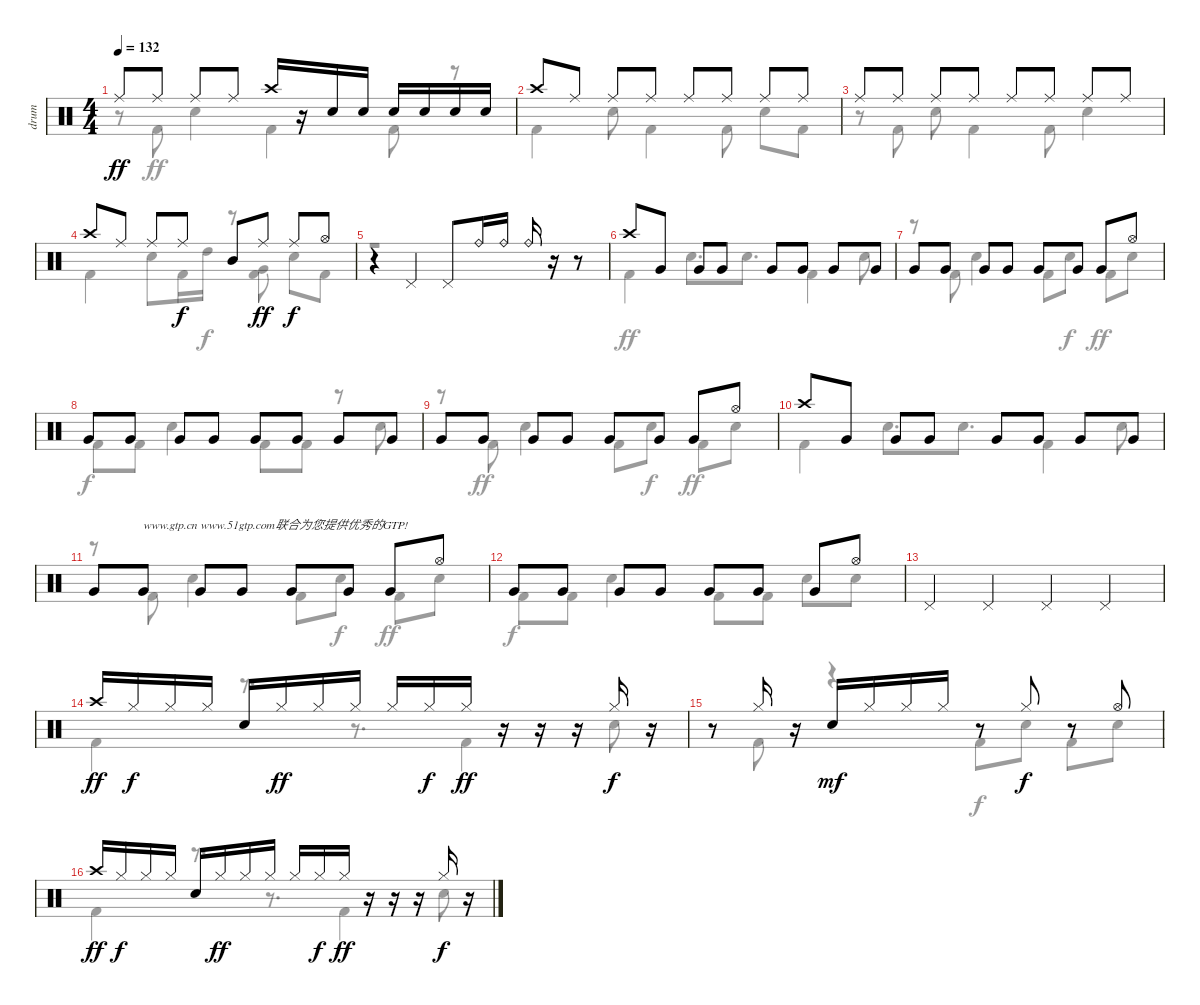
\track ("drum" "drum") {instrument percussion}
\staff {score}
\articulation defaults
\voice
\ts (4 4)
\tempo 132
\clef neutral
\ks c "Ride (middle)".8{dy ff} "Ride (middle)".8 "Ride (middle)".8 "Ride (middle)".8 "Crash high (hit)".16
r.16 "Snare (hit) 2".16 "Snare (hit) 2".16 "Snare (hit) 2".16 "Snare (hit) 2".16 "Snare (hit) 2".16 "Snare (hit) 2".16 |
"Crash high (hit)".8 "Ride (middle)".8 "Ride (middle)".8 "Ride (middle)".8 "Ride (middle)".8 "Ride (middle)".8 "Ride (middle)".8 "Ride (middle)".8 |
"Ride (middle)".8 "Ride (middle)".8 "Ride (middle)".8 "Ride (middle)".8 "Ride (middle)".8 "Ride (middle)".8 "Ride (middle)".8 "Ride (middle)".8 |
"Crash high (hit)".8 "Ride (middle)".8 "Ride (middle)".8 "Ride (middle)".8{dy f} "Mid Tom (hit)".8 "Ride (middle)".8{dy ff} "Ride (middle)".8{dy f} "Hi-Hat (open)".8 |
r.4 "Pedal Hi-Hat (hit)".4 "Pedal Hi-Hat (hit)".8 "Ride (bell)".16 "Ride (bell)".16 "Ride (bell)".16 r.16 r.8 |
"Crash high (hit)".8 "Very Low Tom (hit)".8 "Very Low Tom (hit)".8 "Very Low Tom (hit)".8 "Very Low Tom (hit)".8 "Very Low Tom (hit)".8 "Very Low Tom (hit)".8 "Very Low Tom (hit)".8 |
"Very Low Tom (hit)".8 "Very Low Tom (hit)".8 "Very Low Tom (hit)".8 "Very Low Tom (hit)".8 "Very Low Tom (hit)".8 "Very Low Tom (hit)".8 "Very Low Tom (hit)".8 "Hi-Hat (open)".8 |
"Very Low Tom (hit)".8 "Very Low Tom (hit)".8 "Very Low Tom (hit)".8 "Very Low Tom (hit)".8 "Very Low Tom (hit)".8 "Very Low Tom (hit)".8 "Very Low Tom (hit)".8 "Very Low Tom (hit)".8 |
"Very Low Tom (hit)".8 "Very Low Tom (hit)".8 "Very Low Tom (hit)".8 "Very Low Tom (hit)".8 "Very Low Tom (hit)".8 "Very Low Tom (hit)".8 "Very Low Tom (hit)".8 "Hi-Hat (open)".8 |
"Crash high (hit)".8 "Very Low Tom (hit)".8 "Very Low Tom (hit)".8 "Very Low Tom (hit)".8 "Very Low Tom (hit)".8 "Very Low Tom (hit)".8 "Very Low Tom (hit)".8 "Very Low Tom (hit)".8 |
"Very Low Tom (hit)".8 "Very Low Tom (hit)".8{txt "www.gtp.cn www.51gtp.com联合为您提供优秀的GTP!"} "Very Low Tom (hit)".8 "Very Low Tom (hit)".8 "Very Low Tom (hit)".8 "Very Low Tom (hit)".8 "Very Low Tom (hit)".8 "Hi-Hat (open)".8 |
"Very Low Tom (hit)".8 "Very Low Tom (hit)".8 "Very Low Tom (hit)".8 "Very Low Tom (hit)".8 "Very Low Tom (hit)".8 "Very Low Tom (hit)".8 "Very Low Tom (hit)".8 "Hi-Hat (open)".8 |
"Pedal Hi-Hat (hit)".4 "Pedal Hi-Hat (hit)".4 "Pedal Hi-Hat (hit)".4 "Pedal Hi-Hat (hit)".4 |
"Crash high (hit)".16{dy ff} "Hi-Hat (closed)".16{dy f} "Hi-Hat (closed)".16 "Hi-Hat (closed)".16 "Snare (hit) 2".16 "Hi-Hat (closed)".16{dy ff} "Hi-Hat (closed)".16 "Hi-Hat (closed)".16 "Hi-Hat (closed)".16 "Hi-Hat (closed)".16{dy f} "Hi-Hat (closed)".16{dy ff} r.16 r.16 r.16 "Hi-Hat (closed)".16{dy f} r.16 |
r.8 "Hi-Hat (closed)".16 r.16 "Snare (hit) 2".16{dy mf} "Hi-Hat (closed)".16 "Hi-Hat (closed)".16 "Hi-Hat (closed)".16 r.8 "Hi-Hat (closed)".8{dy f} r.8 "Hi-Hat (open)".8 |
"Crash high (hit)".16{dy ff} "Hi-Hat (closed)".16{dy f} "Hi-Hat (closed)".16 "Hi-Hat (closed)".16 "Snare (hit) 2".16 "Hi-Hat (closed)".16{dy ff} "Hi-Hat (closed)".16 "Hi-Hat (closed)".16 "Hi-Hat (closed)".16 "Hi-Hat (closed)".16{dy f} "Hi-Hat (closed)".16{dy ff} r.16 r.16 r.16 "Hi-Hat (closed)".16{dy f} r.16
\voice
\clef neutral
\ottava regular
\simile none
\ks c
r.8{dy ff} "Kick (hit) 2".8 "Snare (hit) 2".4 "Kick (hit) 2".4 "Kick (hit) 2".8 r.8 |
"Kick (hit) 2".4 "Snare (hit) 2".8 "Kick (hit) 2".4 "Kick (hit) 2".8 "Snare (hit) 2".8 "Kick (hit) 2".8 |
r.8 "Kick (hit) 2".8 "Snare (hit) 2".8 "Kick (hit) 2".4 "Kick (hit) 2".8 "Snare (hit) 2".4 |
"Kick (hit) 2".4 "Snare (hit) 2".8 "Kick (hit) 2".16 "High Tom (hit)".16{dy f} r.8 ("Very Low Tom (hit)" "Kick (hit) 2").8 "Snare (hit) 2".8 "Kick (hit) 2".8 |
r.1 |
"Kick (hit) 2".4{dy ff} "Snare (hit) 2".8{d} "Snare (hit) 2".8{d} "Kick (hit) 2".4 "Snare (hit) 2".8 |
r.8 "Kick (hit) 2".8 "Snare (hit) 2".4 "Kick (hit) 2".8 "Snare (hit) 2".8{dy f} "Kick (hit) 2".8{dy ff} "Snare (hit) 2".8 |
"Kick (hit) 2".8{dy f} "Kick (hit) 2".8 "Snare (hit) 2".4 "Kick (hit) 2".8 "Kick (hit) 2".8 r.8 "Snare (hit) 2".8 |
r.8 "Kick (hit) 2".8{dy ff} "Snare (hit) 2".4 "Kick (hit) 2".8 "Snare (hit) 2".8{dy f} "Kick (hit) 2".8{dy ff} "Snare (hit) 2".8 |
"Kick (hit) 2".4 "Snare (hit) 2".8{d} "Snare (hit) 2".8{d} "Kick (hit) 2".4 "Snare (hit) 2".8 |
r.8 "Kick (hit) 2".8 "Snare (hit) 2".4 "Kick (hit) 2".8 "Snare (hit) 2".8{dy f} "Kick (hit) 2".8{dy ff} "Snare (hit) 2".8 |
"Kick (hit) 2".8{dy f} "Kick (hit) 2".8 "Snare (hit) 2".4 "Kick (hit) 2".8 "Kick (hit) 2".8 "Snare (hit) 2".8 "Snare (hit) 2".8 |
|
"Kick (hit) 2".4{dy ff} r.8{d} r.8{d} "Kick (hit) 2".4 "Snare (hit) 2".8 |
r.8 "Kick (hit) 2".8 r.4 "Kick (hit) 2".8{dy f} "Snare (hit) 2".8 "Kick (hit) 2".8 "Snare (hit) 2".8 |
"Kick (hit) 2".4{dy ff} r.8{d} r.8{d} "Kick (hit) 2".4 "Snare (hit) 2".8
